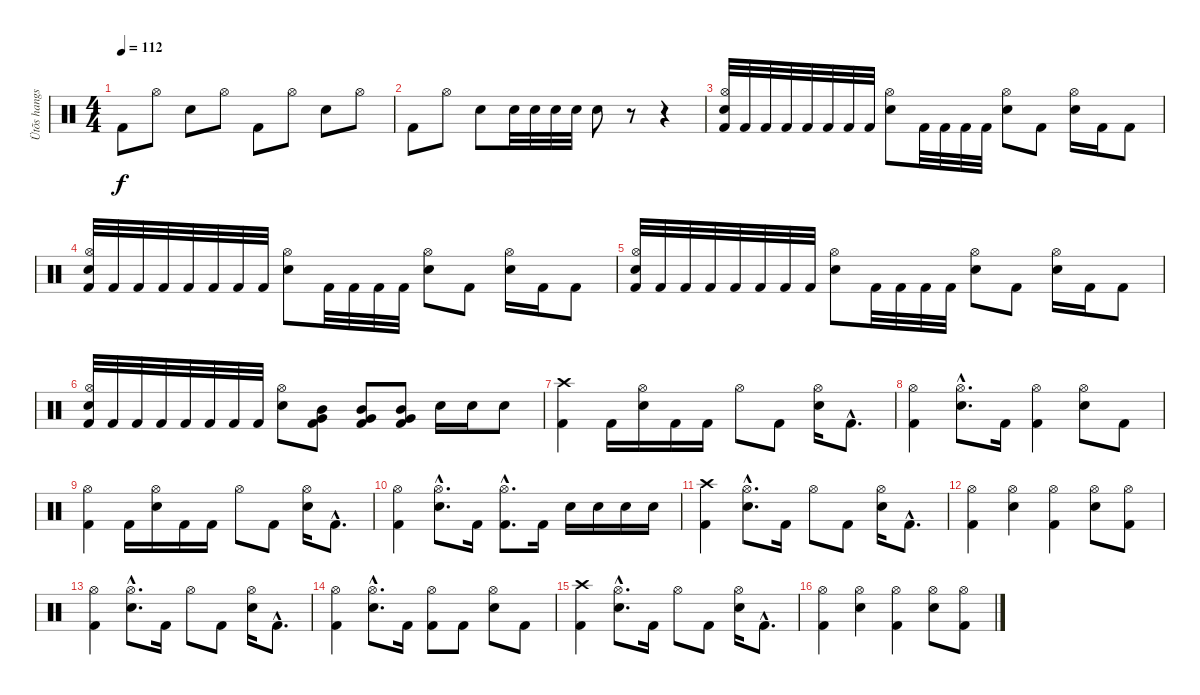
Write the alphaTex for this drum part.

\track ("Ütõs hangszer" "Ütõs hangs") {instrument percussion}
\staff {score}
\articulation defaults
\ts (4 4)
\tempo 112
\clef neutral
\ks c "Kick (hit) 2".8{dy f} "Hi-Hat (open)".8 "Electric Snare (hit)".8 "Hi-Hat (open)".8 "Kick (hit) 2".8 "Hi-Hat (open)".8 "Electric Snare (hit)".8 "Hi-Hat (open)".8
|
"Kick (hit) 2".8 "Hi-Hat (open)".8 "Electric Snare (hit)".8 "Electric Snare (hit)".32 "Electric Snare (hit)".32 "Electric Snare (hit)".32 "Electric Snare (hit)".32 "Electric Snare (hit)".8 r.8 r.4 |
("Hi-Hat (open)" "Electric Snare (hit)" "Kick (hit) 2").32 "Kick (hit) 2".32 "Kick (hit) 2".32 "Kick (hit) 2".32 "Kick (hit) 2".32 "Kick (hit) 2".32 "Kick (hit) 2".32 "Kick (hit) 2".32 ("Hi-Hat (open)" "Electric Snare (hit)").8 "Kick (hit) 2".32 "Kick (hit) 2".32 "Kick (hit) 2".32 "Kick (hit) 2".32 ("Hi-Hat (open)" "Electric Snare (hit)").8 "Kick (hit) 2".8 ("Hi-Hat (open)" "Electric Snare (hit)").16 "Kick (hit) 2".16 "Kick (hit) 2".8 |
("Hi-Hat (open)" "Electric Snare (hit)" "Kick (hit) 2").32 "Kick (hit) 2".32 "Kick (hit) 2".32 "Kick (hit) 2".32 "Kick (hit) 2".32 "Kick (hit) 2".32 "Kick (hit) 2".32 "Kick (hit) 2".32 ("Hi-Hat (open)" "Electric Snare (hit)").8 "Kick (hit) 2".32 "Kick (hit) 2".32 "Kick (hit) 2".32 "Kick (hit) 2".32 ("Hi-Hat (open)" "Electric Snare (hit)").8 "Kick (hit) 2".8 ("Hi-Hat (open)" "Electric Snare (hit)").16 "Kick (hit) 2".16 "Kick (hit) 2".8 |
("Hi-Hat (open)" "Electric Snare (hit)" "Kick (hit) 2").32 "Kick (hit) 2".32 "Kick (hit) 2".32 "Kick (hit) 2".32 "Kick (hit) 2".32 "Kick (hit) 2".32 "Kick (hit) 2".32 "Kick (hit) 2".32 ("Hi-Hat (open)" "Electric Snare (hit)").8 "Kick (hit) 2".32 "Kick (hit) 2".32 "Kick (hit) 2".32 "Kick (hit) 2".32 ("Hi-Hat (open)" "Electric Snare (hit)").8 "Kick (hit) 2".8 ("Hi-Hat (open)" "Electric Snare (hit)").16 "Kick (hit) 2".16 "Kick (hit) 2".8 |
("Hi-Hat (open)" "Electric Snare (hit)" "Kick (hit) 2").32 "Kick (hit) 2".32 "Kick (hit) 2".32 "Kick (hit) 2".32 "Kick (hit) 2".32 "Kick (hit) 2".32 "Kick (hit) 2".32 "Kick (hit) 2".32 ("Hi-Hat (open)" "Electric Snare (hit)").8 ("Mid Tom (hit)" "Very Low Tom (hit)" "Kick (hit) 2").8 ("Mid Tom (hit)" "Very Low Tom (hit)" "Kick (hit) 2").8 ("Mid Tom (hit)" "Very Low Tom (hit)" "Kick (hit) 2").8 "Electric Snare (hit)".16 "Electric Snare (hit)".16 "Electric Snare (hit)".8 |
("Crash high (hit)" "Kick (hit) 2").4 "Kick (hit) 2".16 ("Hi-Hat (open)" "Electric Snare (hit)").16 "Kick (hit) 2".16 "Kick (hit) 2".16 "Hi-Hat (open)".8 "Kick (hit) 2".8 ("Hi-Hat (open)" "Electric Snare (hit)").16 "Kick (hit) 2"{hac}.8{d} |
("Hi-Hat (open)" "Kick (hit) 2").4 ("Hi-Hat (open)"{hac} "Electric Snare (hit)"{hac}).8{d} "Kick (hit) 2".16 ("Hi-Hat (open)" "Kick (hit) 2").4 ("Hi-Hat (open)" "Electric Snare (hit)").8 "Kick (hit) 2".8 |
("Hi-Hat (open)" "Kick (hit) 2").4 "Kick (hit) 2".16 ("Hi-Hat (open)" "Electric Snare (hit)").16 "Kick (hit) 2".16 "Kick (hit) 2".16 "Hi-Hat (open)".8 "Kick (hit) 2".8 ("Hi-Hat (open)" "Electric Snare (hit)").16 "Kick (hit) 2"{hac}.8{d} |
("Hi-Hat (open)" "Kick (hit) 2").4 ("Hi-Hat (open)"{hac} "Electric Snare (hit)"{hac}).8{d} "Kick (hit) 2".16 ("Hi-Hat (open)"{hac} "Kick (hit) 2"{hac}).8{d} "Kick (hit) 2".16 "Electric Snare (hit)".16 "Electric Snare (hit)".16 "Electric Snare (hit)".16 "Electric Snare (hit)".16 |
("Crash high (hit)" "Kick (hit) 2").4 ("Hi-Hat (open)"{hac} "Electric Snare (hit)"{hac}).8{d} "Kick (hit) 2".16 "Hi-Hat (open)".8 "Kick (hit) 2".8 ("Hi-Hat (open)" "Electric Snare (hit)").16 "Kick (hit) 2"{hac}.8{d} |
("Hi-Hat (open)" "Kick (hit) 2").4 ("Hi-Hat (open)" "Electric Snare (hit)").4 ("Hi-Hat (open)" "Kick (hit) 2").4 ("Hi-Hat (open)" "Electric Snare (hit)").8 ("Hi-Hat (open)" "Kick (hit) 2").8 |
("Hi-Hat (open)" "Kick (hit) 2").4 ("Hi-Hat (open)"{hac} "Electric Snare (hit)"{hac}).8{d} "Kick (hit) 2".16 "Hi-Hat (open)".8 "Kick (hit) 2".8 ("Hi-Hat (open)" "Electric Snare (hit)").16 "Kick (hit) 2"{hac}.8{d} |
("Hi-Hat (open)" "Kick (hit) 2").4 ("Hi-Hat (open)"{hac} "Electric Snare (hit)"{hac}).8{d} "Kick (hit) 2".16 ("Hi-Hat (open)" "Kick (hit) 2").8 "Kick (hit) 2".8 ("Hi-Hat (open)" "Electric Snare (hit)").8 "Kick (hit) 2".8 |
("Crash high (hit)" "Kick (hit) 2").4 ("Hi-Hat (open)"{hac} "Electric Snare (hit)"{hac}).8{d} "Kick (hit) 2".16 "Hi-Hat (open)".8 "Kick (hit) 2".8 ("Hi-Hat (open)" "Electric Snare (hit)").16 "Kick (hit) 2"{hac}.8{d} |
("Hi-Hat (open)" "Kick (hit) 2").4 ("Hi-Hat (open)" "Electric Snare (hit)").4 ("Hi-Hat (open)" "Kick (hit) 2").4 ("Hi-Hat (open)" "Electric Snare (hit)").8 ("Hi-Hat (open)" "Kick (hit) 2").8
